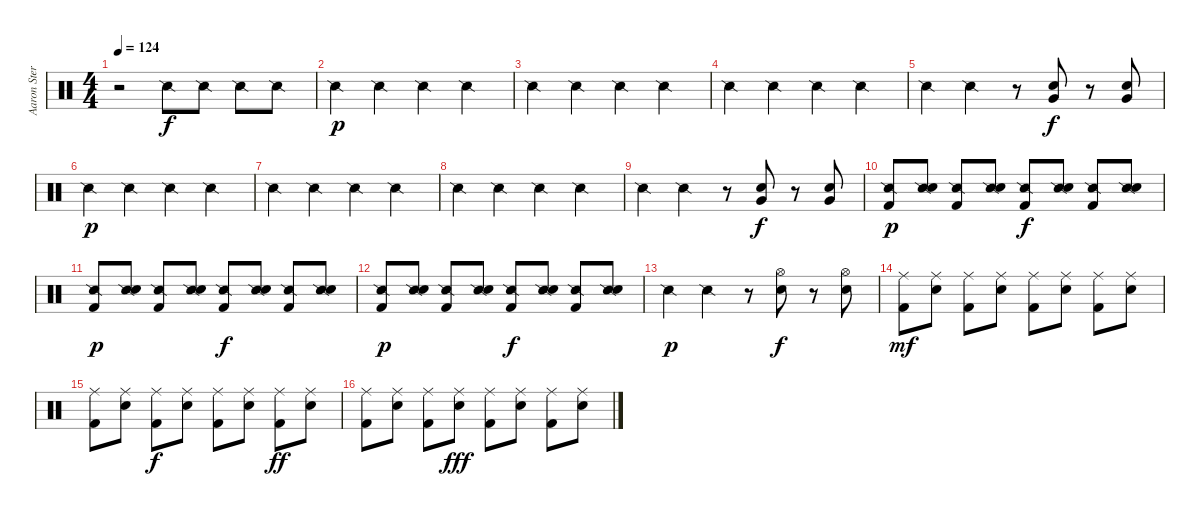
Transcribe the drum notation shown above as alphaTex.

\track ("Aaron Stern" "Aaron Ster") {instrument percussion}
\staff {score}
\articulation defaults
\ts (4 4)
\tempo 124
\clef neutral
\ks c
r.2{dy f} "Snare (side stick) 2".8 "Snare (side stick) 2".8 "Snare (side stick) 2".8 "Snare (side stick) 2".8 |
"Snare (side stick) 2".4{dy p} "Snare (side stick) 2".4 "Snare (side stick) 2".4 "Snare (side stick) 2".4 |
"Snare (side stick) 2".4 "Snare (side stick) 2".4 "Snare (side stick) 2".4 "Snare (side stick) 2".4 |
"Snare (side stick) 2".4 "Snare (side stick) 2".4 "Snare (side stick) 2".4 "Snare (side stick) 2".4 |
"Snare (side stick) 2".4 "Snare (side stick) 2".4 r.8 ("Snare (hit) 2" "Very Low Tom (hit)").8{dy f} r.8 ("Snare (hit) 2" "Very Low Tom (hit)").8 |
"Snare (side stick) 2".4{dy p} "Snare (side stick) 2".4 "Snare (side stick) 2".4 "Snare (side stick) 2".4 |
"Snare (side stick) 2".4 "Snare (side stick) 2".4 "Snare (side stick) 2".4 "Snare (side stick) 2".4 |
"Snare (side stick) 2".4 "Snare (side stick) 2".4 "Snare (side stick) 2".4 "Snare (side stick) 2".4 |
"Snare (side stick) 2".4 "Snare (side stick) 2".4 r.8 ("Snare (hit) 2" "Very Low Tom (hit)").8{dy f} r.8 ("Snare (hit) 2" "Very Low Tom (hit)").8 |
("Snare (side stick) 2" "Kick (hit) 2").8{dy p} ("Snare (side stick) 2" "Snare (hit) 2").8 ("Snare (side stick) 2" "Kick (hit) 2").8 ("Snare (side stick) 2" "Snare (hit) 2").8 ("Snare (side stick) 2" "Kick (hit) 2").8{dy f} ("Snare (side stick) 2" "Snare (hit) 2").8 ("Snare (side stick) 2" "Kick (hit) 2").8 ("Snare (side stick) 2" "Snare (hit) 2").8 |
("Snare (side stick) 2" "Kick (hit) 2").8{dy p} ("Snare (side stick) 2" "Snare (hit) 2").8 ("Snare (side stick) 2" "Kick (hit) 2").8 ("Snare (side stick) 2" "Snare (hit) 2").8 ("Snare (side stick) 2" "Kick (hit) 2").8{dy f} ("Snare (side stick) 2" "Snare (hit) 2").8 ("Snare (side stick) 2" "Kick (hit) 2").8 ("Snare (side stick) 2" "Snare (hit) 2").8 |
("Snare (side stick) 2" "Kick (hit) 2").8{dy p} ("Snare (side stick) 2" "Snare (hit) 2").8 ("Snare (side stick) 2" "Kick (hit) 2").8 ("Snare (side stick) 2" "Snare (hit) 2").8 ("Snare (side stick) 2" "Kick (hit) 2").8{dy f} ("Snare (side stick) 2" "Snare (hit) 2").8 ("Snare (side stick) 2" "Kick (hit) 2").8 ("Snare (side stick) 2" "Snare (hit) 2").8 |
"Snare (side stick) 2".4{dy p} "Snare (side stick) 2".4 r.8 ("Hi-Hat (open)" "Snare (hit) 2").8{dy f} r.8 ("Hi-Hat (open)" "Snare (hit) 2").8 |
("Ride (middle)" "Kick (hit) 2").8{dy mf} ("Ride (middle)" "Snare (hit) 2").8 ("Ride (middle)" "Kick (hit) 2").8 ("Ride (middle)" "Snare (hit) 2").8 ("Ride (middle)" "Kick (hit) 2").8 ("Ride (middle)" "Snare (hit) 2").8 ("Ride (middle)" "Kick (hit) 2").8 ("Ride (middle)" "Snare (hit) 2").8 |
("Ride (middle)" "Kick (hit) 2").8 ("Ride (middle)" "Snare (hit) 2").8 ("Ride (middle)" "Kick (hit) 2").8{dy f} ("Ride (middle)" "Snare (hit) 2").8 ("Ride (middle)" "Kick (hit) 2").8 ("Ride (middle)" "Snare (hit) 2").8 ("Ride (middle)" "Kick (hit) 2").8{dy ff} ("Ride (middle)" "Snare (hit) 2").8 |
("Ride (middle)" "Kick (hit) 2").8 ("Ride (middle)" "Snare (hit) 2").8 ("Ride (middle)" "Kick (hit) 2").8 ("Ride (middle)" "Snare (hit) 2").8{dy fff} ("Ride (middle)" "Kick (hit) 2").8 ("Ride (middle)" "Snare (hit) 2").8 ("Ride (middle)" "Kick (hit) 2").8 ("Ride (middle)" "Snare (hit) 2").8
